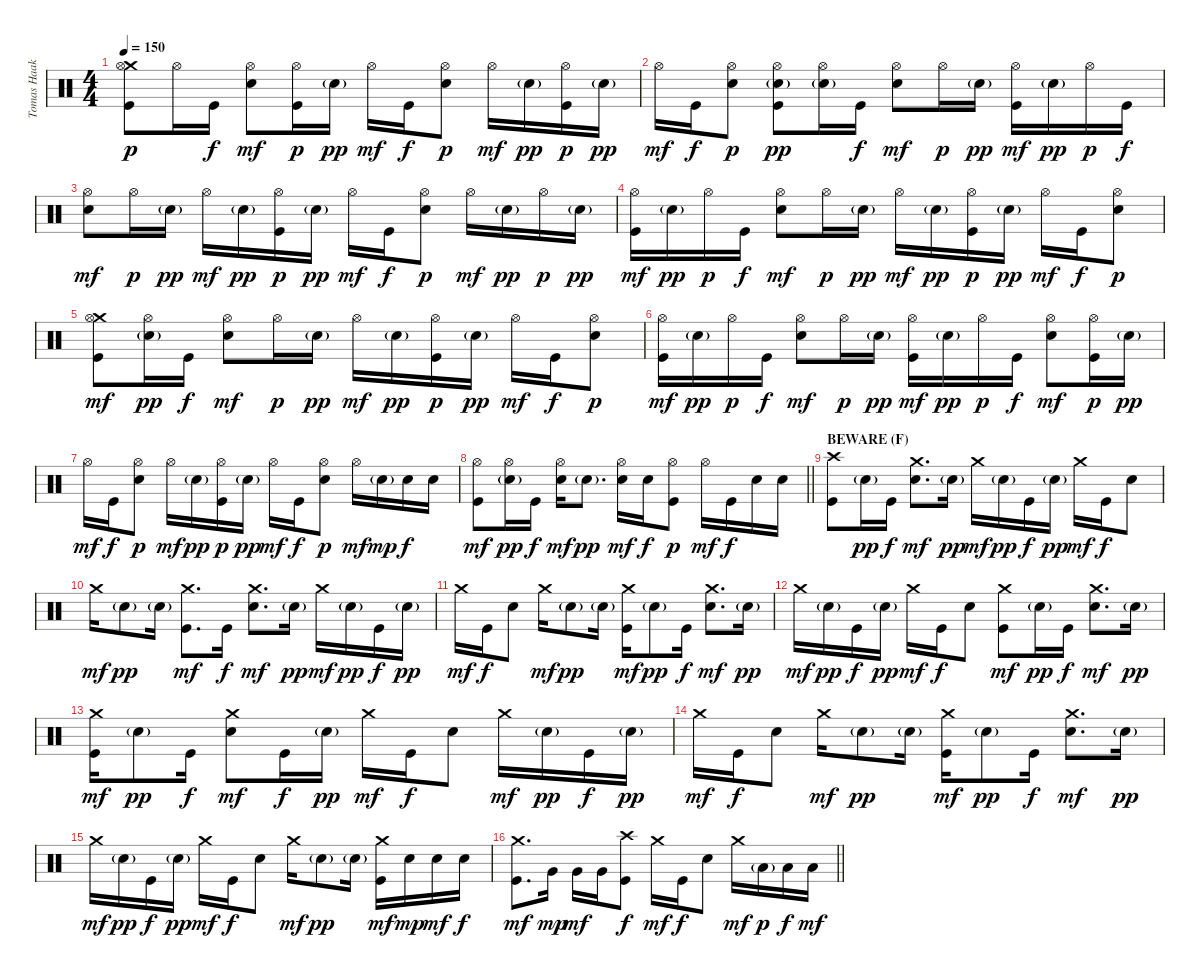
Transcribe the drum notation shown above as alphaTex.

\track ("Tomas Haake (Drums)" "Tomas Haak") {instrument percussion}
\staff {score}
\articulation defaults
\ts (4 4)
\tempo 150
\clef neutral
\ks c
("Crash medium (hit)" "Hi-Hat (open)" "Kick (hit)").8{dy p} "Hi-Hat (open)".16 "Kick (hit)".16{dy f} ("Hi-Hat (open)" "Electric Snare (hit)").8{dy mf} ("Hi-Hat (open)" "Kick (hit)").16{dy p} "Electric Snare (hit)"{g}.16{dy pp} "Hi-Hat (open)".16{dy mf} "Kick (hit)".16{dy f} ("Hi-Hat (open)" "Electric Snare (hit)").8{dy p} "Hi-Hat (open)".16{dy mf} "Electric Snare (hit)"{g}.16{dy pp} ("Hi-Hat (open)" "Kick (hit)").16{dy p} "Electric Snare (hit)"{g}.16{dy pp} |
"Hi-Hat (open)".16{dy mf} "Kick (hit)".16{dy f} ("Hi-Hat (open)" "Electric Snare (hit)").8{dy p} ("Hi-Hat (open)" "Electric Snare (hit)"{g} "Kick (hit)").8{dy pp} ("Hi-Hat (open)" "Electric Snare (hit)"{g}).16 "Kick (hit)".16{dy f} ("Hi-Hat (open)" "Electric Snare (hit)").8{dy mf} "Hi-Hat (open)".16{dy p} "Electric Snare (hit)"{g}.16{dy pp} ("Hi-Hat (open)" "Kick (hit)").16{dy mf} "Electric Snare (hit)"{g}.16{dy pp} "Hi-Hat (open)".16{dy p} "Kick (hit)".16{dy f} |
("Hi-Hat (open)" "Electric Snare (hit)").8{dy mf} "Hi-Hat (open)".16{dy p} "Electric Snare (hit)"{g}.16{dy pp} "Hi-Hat (open)".16{dy mf} "Electric Snare (hit)"{g}.16{dy pp} ("Hi-Hat (open)" "Kick (hit)").16{dy p} "Electric Snare (hit)"{g}.16{dy pp} "Hi-Hat (open)".16{dy mf} "Kick (hit)".16{dy f} ("Hi-Hat (open)" "Electric Snare (hit)").8{dy p} "Hi-Hat (open)".16{dy mf} "Electric Snare (hit)"{g}.16{dy pp} "Hi-Hat (open)".16{dy p} "Electric Snare (hit)"{g}.16{dy pp} |
("Hi-Hat (open)" "Kick (hit)").16{dy mf} "Electric Snare (hit)"{g}.16{dy pp} "Hi-Hat (open)".16{dy p} "Kick (hit)".16{dy f} ("Hi-Hat (open)" "Electric Snare (hit)").8{dy mf} "Hi-Hat (open)".16{dy p} "Electric Snare (hit)"{g}.16{dy pp} "Hi-Hat (open)".16{dy mf} "Electric Snare (hit)"{g}.16{dy pp} ("Hi-Hat (open)" "Kick (hit)").16{dy p} "Electric Snare (hit)"{g}.16{dy pp} "Hi-Hat (open)".16{dy mf} "Kick (hit)".16{dy f} ("Hi-Hat (open)" "Electric Snare (hit)").8{dy p} |
("Crash medium (hit)" "Hi-Hat (open)" "Kick (hit)").8{dy mf} ("Hi-Hat (open)" "Electric Snare (hit)"{g}).16{dy pp} "Kick (hit)".16{dy f} ("Hi-Hat (open)" "Electric Snare (hit)").8{dy mf} "Hi-Hat (open)".16{dy p} "Electric Snare (hit)"{g}.16{dy pp} "Hi-Hat (open)".16{dy mf} "Electric Snare (hit)"{g}.16{dy pp} ("Hi-Hat (open)" "Kick (hit)").16{dy p} "Electric Snare (hit)"{g}.16{dy pp} "Hi-Hat (open)".16{dy mf} "Kick (hit)".16{dy f} ("Hi-Hat (open)" "Electric Snare (hit)").8{dy p} |
("Hi-Hat (open)" "Kick (hit)").16{dy mf} "Electric Snare (hit)"{g}.16{dy pp} "Hi-Hat (open)".16{dy p} "Kick (hit)".16{dy f} ("Hi-Hat (open)" "Electric Snare (hit)").8{dy mf} "Hi-Hat (open)".16{dy p} "Electric Snare (hit)"{g}.16{dy pp} ("Hi-Hat (open)" "Kick (hit)").16{dy mf} "Electric Snare (hit)"{g}.16{dy pp} "Hi-Hat (open)".16{dy p} "Kick (hit)".16{dy f} ("Hi-Hat (open)" "Electric Snare (hit)").8{dy mf} ("Hi-Hat (open)" "Kick (hit)").16{dy p} "Electric Snare (hit)"{g}.16{dy pp} |
"Hi-Hat (open)".16{dy mf} "Kick (hit)".16{dy f} ("Hi-Hat (open)" "Electric Snare (hit)").8{dy p} "Hi-Hat (open)".16{dy mf} "Electric Snare (hit)"{g}.16{dy pp} ("Hi-Hat (open)" "Kick (hit)").16{dy p} "Electric Snare (hit)"{g}.16{dy pp} "Hi-Hat (open)".16{dy mf} "Kick (hit)".16{dy f} ("Hi-Hat (open)" "Electric Snare (hit)").8{dy p} "Hi-Hat (open)".16{dy mf} "Electric Snare (hit)"{g}.16{dy mp} "Electric Snare (hit)".16{dy f} "Electric Snare (hit)".16 |
\barLineRight lightlight
("Hi-Hat (open)" "Kick (hit)").8{dy mf} ("Hi-Hat (open)" "Electric Snare (hit)"{g}).16{dy pp} "Kick (hit)".16{dy f} ("Hi-Hat (open)" "Electric Snare (hit)").16{dy mf} "Electric Snare (hit)"{g}.8{d dy pp} ("Hi-Hat (open)" "Electric Snare (hit)").16{dy mf} "Electric Snare (hit)".16{dy f} ("Hi-Hat (open)" "Kick (hit)").8{dy p} "Hi-Hat (open)".16{dy mf} "Kick (hit)".16{dy f} "Electric Snare (hit)".16 "Electric Snare (hit)".16 |
\section ("" "BEWARE (F)")
("Crash high (hit)" "Kick (hit)").8 "Electric Snare (hit)"{g}.16{dy pp} "Kick (hit)".16{dy f} ("Crash medium (hit)" "Electric Snare (hit)").8{d dy mf} "Electric Snare (hit)"{g}.16{dy pp} "Crash medium (hit)".16{dy mf} "Electric Snare (hit)"{g}.16{dy pp} "Kick (hit)".16{dy f} "Electric Snare (hit)"{g}.16{dy pp} "Crash medium (hit)".16{dy mf} "Kick (hit)".16{dy f} "Electric Snare (hit)".8 |
"Crash medium (hit)".16{dy mf} "Electric Snare (hit)"{g}.8{dy pp} "Electric Snare (hit)"{g}.16 ("Crash medium (hit)" "Kick (hit)").8{d dy mf} "Kick (hit)".16{dy f} ("Crash medium (hit)" "Electric Snare (hit)").8{d dy mf} "Electric Snare (hit)"{g}.16{dy pp} "Crash medium (hit)".16{dy mf} "Electric Snare (hit)"{g}.16{dy pp} "Kick (hit)".16{dy f} "Electric Snare (hit)"{g}.16{dy pp} |
"Crash medium (hit)".16{dy mf} "Kick (hit)".16{dy f} "Electric Snare (hit)".8 "Crash medium (hit)".16{dy mf} "Electric Snare (hit)"{g}.8{dy pp} "Electric Snare (hit)"{g}.16 ("Crash medium (hit)" "Kick (hit)").16{dy mf} "Electric Snare (hit)"{g}.8{dy pp} "Kick (hit)".16{dy f} ("Crash medium (hit)" "Electric Snare (hit)").8{d dy mf} "Electric Snare (hit)"{g}.16{dy pp} |
"Crash medium (hit)".16{dy mf} "Electric Snare (hit)"{g}.16{dy pp} "Kick (hit)".16{dy f} "Electric Snare (hit)"{g}.16{dy pp} "Crash medium (hit)".16{dy mf} "Kick (hit)".16{dy f} "Electric Snare (hit)".8 ("Crash medium (hit)" "Kick (hit)").8{dy mf} "Electric Snare (hit)"{g}.16{dy pp} "Kick (hit)".16{dy f} ("Crash medium (hit)" "Electric Snare (hit)").8{d dy mf} "Electric Snare (hit)"{g}.16{dy pp} |
("Crash medium (hit)" "Kick (hit)").16{dy mf} "Electric Snare (hit)"{g}.8{dy pp} "Kick (hit)".16{dy f} ("Crash medium (hit)" "Electric Snare (hit)").8{dy mf} "Kick (hit)".16{dy f} "Electric Snare (hit)"{g}.16{dy pp} "Crash medium (hit)".16{dy mf} "Kick (hit)".16{dy f} "Electric Snare (hit)".8 "Crash medium (hit)".16{dy mf} "Electric Snare (hit)"{g}.16{dy pp} "Kick (hit)".16{dy f} "Electric Snare (hit)"{g}.16{dy pp} |
"Crash medium (hit)".16{dy mf} "Kick (hit)".16{dy f} "Electric Snare (hit)".8 "Crash medium (hit)".16{dy mf} "Electric Snare (hit)"{g}.8{dy pp} "Electric Snare (hit)"{g}.16 ("Crash medium (hit)" "Kick (hit)").16{dy mf} "Electric Snare (hit)"{g}.8{dy pp} "Kick (hit)".16{dy f} ("Crash medium (hit)" "Electric Snare (hit)").8{d dy mf} "Electric Snare (hit)"{g}.16{dy pp} |
"Crash medium (hit)".16{dy mf} "Electric Snare (hit)"{g}.16{dy pp} "Kick (hit)".16{dy f} "Electric Snare (hit)"{g}.16{dy pp} "Crash medium (hit)".16{dy mf} "Kick (hit)".16{dy f} "Electric Snare (hit)".8 "Crash medium (hit)".16{dy mf} "Electric Snare (hit)"{g}.8{dy pp} "Electric Snare (hit)"{g}.16 ("Crash medium (hit)" "Kick (hit)").16{dy mf} "Electric Snare (hit)".16{dy mp} "Electric Snare (hit)".16{dy mf} "Electric Snare (hit)".16{dy f} |
\barLineRight lightlight
("Crash medium (hit)" "Kick (hit)").8{d dy mf} "Very Low Tom (hit)".16{dy mp} "Very Low Tom (hit)".16{dy mf} "Very Low Tom (hit)".16 ("Crash high (hit)" "Kick (hit)").8{dy f} "Crash medium (hit)".16{dy mf} "Kick (hit)".16{dy f} "Electric Snare (hit)".8 "Crash medium (hit)".16{dy mf} "Low Floor Tom (hit)"{g}.16{dy p} "Low Floor Tom (hit)".16{dy f} "Low Floor Tom (hit)".16{dy mf}
